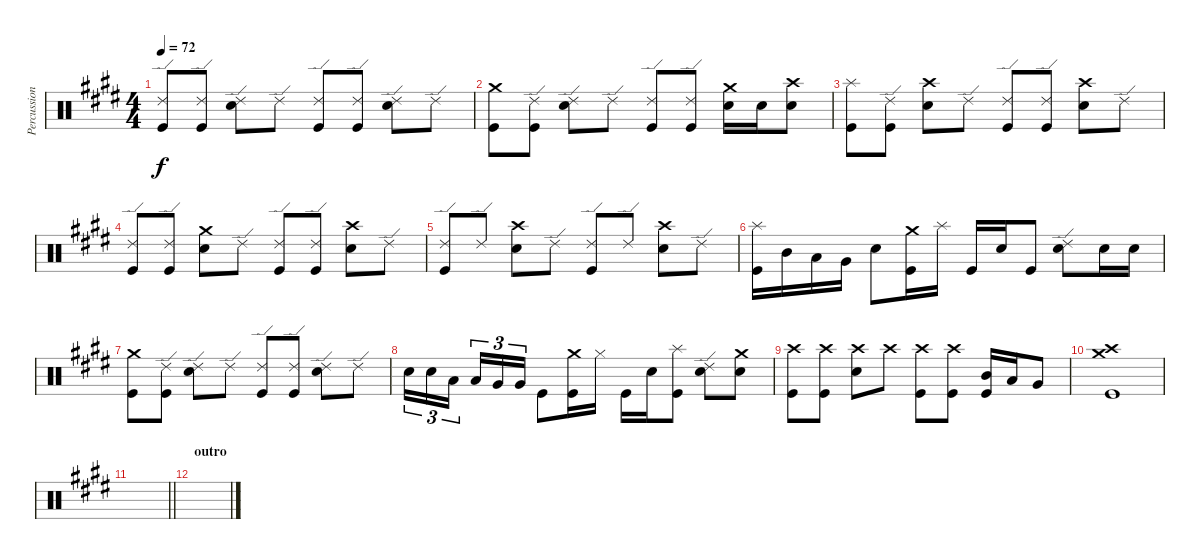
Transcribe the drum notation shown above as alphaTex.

\track ("Percussion" "Percussion") {instrument percussion}
\staff {score}
\articulation defaults
\ts (4 4)
\tempo 72
\clef neutral
\ks e
("Ride (edge) 2" "Kick (hit)").8{dy f} ("Ride (edge) 2" "Kick (hit)").8 ("Ride (edge) 2" "Snare (hit) 2").8 "Ride (edge) 2".8 ("Ride (edge) 2" "Kick (hit)").8 ("Ride (edge) 2" "Kick (hit)").8 ("Ride (edge) 2" "Snare (hit) 2").8 "Ride (edge) 2".8 |
("Crash medium (hit)" "Kick (hit)").8 ("Ride (edge) 2" "Kick (hit)").8 ("Ride (edge) 2" "Snare (hit) 2").8 "Ride (edge) 2".8 ("Ride (edge) 2" "Kick (hit)").8 ("Ride (edge) 2" "Kick (hit)").8 ("Crash medium (hit)" "Snare (hit) 2").16 "Snare (hit) 2".16 ("Crash high (hit)" "Snare (hit) 2").8 |
("Splash (hit)" "Kick (hit)").8 ("Ride (edge) 2" "Kick (hit)").8 ("Crash high (hit)" "Snare (hit) 2").8 "Ride (edge) 2".8 ("Ride (edge) 2" "Kick (hit)").8 ("Ride (edge) 2" "Kick (hit)").8 ("Crash high (hit)" "Snare (hit) 2").8 "Ride (edge) 2".8 |
("Ride (edge) 2" "Kick (hit)").8 ("Ride (edge) 2" "Kick (hit)").8 ("Crash medium (hit)" "Snare (hit) 2").8 "Ride (edge) 2".8 ("Ride (edge) 2" "Kick (hit)").8 ("Ride (edge) 2" "Kick (hit)").8 ("Crash high (hit)" "Snare (hit) 2").8 "Ride (edge) 2".8 |
("Ride (edge) 2" "Kick (hit)").8 "Ride (edge) 2".8 ("Crash high (hit)" "Snare (hit) 2").8 "Ride (edge) 2".8 ("Ride (edge) 2" "Kick (hit)").8 "Ride (edge) 2".8 ("Crash high (hit)" "Snare (hit) 2").8 "Ride (edge) 2".8 |
("Splash (hit)" "Kick (hit)").16 "Mid Tom (hit)".16 "Low Tom (hit)".16 "Very Low Tom (hit)".16 "Snare (hit) 2".8 ("Crash medium (hit)" "Kick (hit)").16 "Splash (hit)".16 "Kick (hit)".16 "Snare (hit) 2".16 "Kick (hit)".8 ("Ride (edge) 2" "Snare (hit) 2").8 "Snare (hit) 2".16 "Snare (hit) 2".16 |
("Crash medium (hit)" "Kick (hit)").8 ("Ride (edge) 2" "Kick (hit)").8 ("Ride (edge) 2" "Snare (hit) 2").8 "Ride (edge) 2".8 ("Ride (edge) 2" "Kick (hit)").8 ("Ride (edge) 2" "Kick (hit)").8 ("Ride (edge) 2" "Snare (hit) 2").8 "Ride (edge) 2".8 |
"Snare (hit) 2".16{tu (3 2)} "Snare (hit) 2".16{tu (3 2)} "Low Tom (hit)".16{tu (3 2) beam splitsecondary} "Low Tom (hit)".16{tu (3 2)} "Very Low Tom (hit)".16{tu (3 2)} "Very Low Tom (hit)".16{tu (3 2)} "Kick (hit)".8 ("Crash medium (hit)" "Kick (hit)").16 "Hi-Hat (closed)".16 "Kick (hit)".16 "Snare (hit) 2".16 ("Splash (hit)" "Kick (hit)").8 ("Ride (edge) 2" "Snare (hit) 2").8 ("Crash medium (hit)" "Snare (hit) 2").8 |
("Crash high (hit)" "Kick (hit)").8 ("Crash high (hit)" "Kick (hit)").8 ("Crash high (hit)" "Snare (hit) 2").8 "Crash high (hit)".8 ("Crash high (hit)" "Kick (hit)").8 ("Crash high (hit)" "Kick (hit)").8 ("Mid Tom (hit)" "Kick (hit)").16 "Low Tom (hit)".16 "Very Low Tom (hit)".8 |
("Crash high (hit)" "Crash medium (hit)" "Kick (hit)").1 |
\barLineRight lightlight
|
\section ("" "outro")
